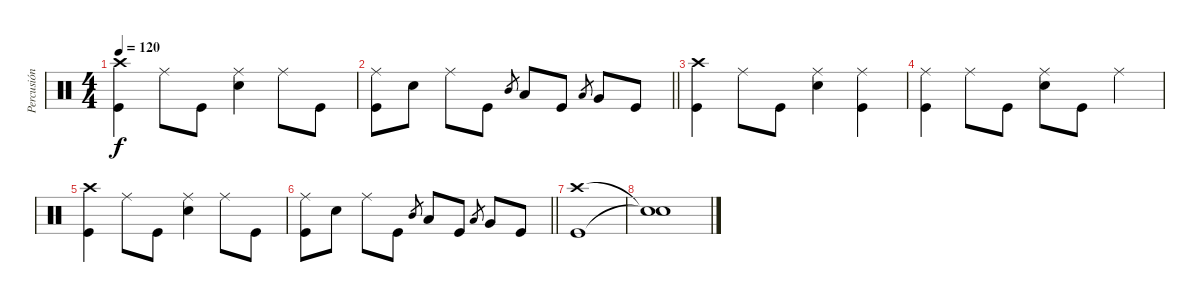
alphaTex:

\track ("Percusión" "Percusión") {instrument percussion}
\staff {score}
\articulation defaults
\ts (4 4)
\tempo 120
\clef neutral
\ks c
("Crash high (hit)" "Kick (hit)").4{dy f} "Ride (middle)".8 "Kick (hit)".8 ("Ride (middle)" "Electric Snare (hit)").4 "Ride (middle)".8 "Kick (hit)".8 |
\barLineRight lightlight
("Ride (middle)" "Kick (hit)").8 "Electric Snare (hit)".8 "Ride (middle)".8 "Kick (hit)".8 "Mid Tom (hit)".8{gr} "Low Tom (hit)".8 "Kick (hit)".8 "Low Tom (hit)".8{gr} "Very Low Tom (hit)".8 "Kick (hit)".8 |
("Crash high (hit)" "Kick (hit)").4 "Ride (middle)".8 "Kick (hit)".8 ("Ride (middle)" "Electric Snare (hit)").4 ("Ride (middle)" "Kick (hit)").4 |
("Ride (middle)" "Kick (hit)").4 "Ride (middle)".8 "Kick (hit)".8 ("Ride (middle)" "Electric Snare (hit)").8 "Kick (hit)".8 "Ride (middle)".4 |
("Crash high (hit)" "Kick (hit)").4 "Ride (middle)".8 "Kick (hit)".8 ("Ride (middle)" "Electric Snare (hit)").4 "Ride (middle)".8 "Kick (hit)".8 |
\barLineRight lightlight
("Ride (middle)" "Kick (hit)").8 "Electric Snare (hit)".8 "Ride (middle)".8 "Kick (hit)".8 "Mid Tom (hit)".8{gr} "Low Tom (hit)".8 "Kick (hit)".8 "Low Tom (hit)".8{gr} "Very Low Tom (hit)".8 "Kick (hit)".8 |
("Crash high (hit)" "Kick (hit)").1 |
("Snare (hit)"{t} "Snare (hit)"{t}).1
